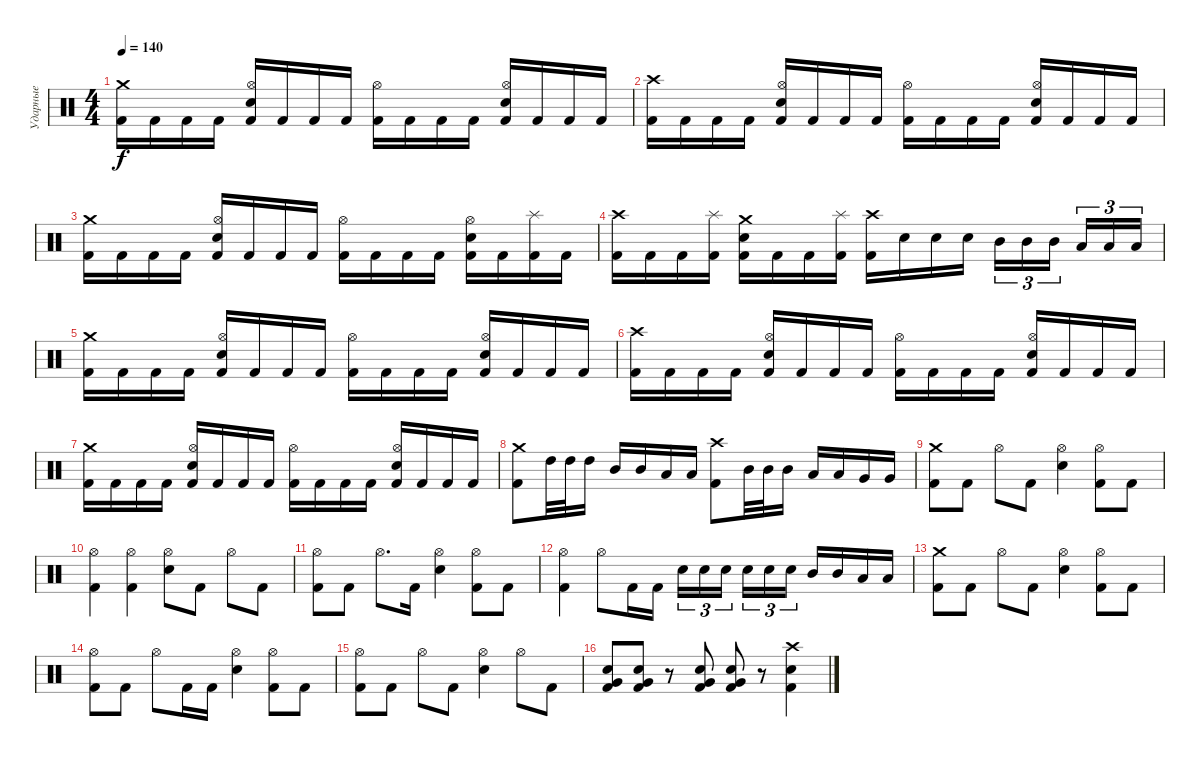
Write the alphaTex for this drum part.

\track ("Ударные" "Ударные") {instrument percussion}
\staff {score}
\articulation defaults
\ts (4 4)
\tempo 140
\clef neutral
\ks c
("Crash medium (hit)" "Kick (hit) 2").16{dy f} "Kick (hit) 2".16 "Kick (hit) 2".16 "Kick (hit) 2".16 ("Hi-Hat (open)" "Electric Snare (hit)" "Kick (hit) 2").16 "Kick (hit) 2".16 "Kick (hit) 2".16 "Kick (hit) 2".16 ("Hi-Hat (open)" "Kick (hit) 2").16 "Kick (hit) 2".16 "Kick (hit) 2".16 "Kick (hit) 2".16 ("Hi-Hat (open)" "Electric Snare (hit)" "Kick (hit) 2").16 "Kick (hit) 2".16 "Kick (hit) 2".16 "Kick (hit) 2".16 |
("Crash high (hit)" "Kick (hit) 2").16 "Kick (hit) 2".16 "Kick (hit) 2".16 "Kick (hit) 2".16 ("Hi-Hat (open)" "Electric Snare (hit)" "Kick (hit) 2").16 "Kick (hit) 2".16 "Kick (hit) 2".16 "Kick (hit) 2".16 ("Hi-Hat (open)" "Kick (hit) 2").16 "Kick (hit) 2".16 "Kick (hit) 2".16 "Kick (hit) 2".16 ("Hi-Hat (open)" "Electric Snare (hit)" "Kick (hit) 2").16 "Kick (hit) 2".16 "Kick (hit) 2".16 "Kick (hit) 2".16 |
("Crash medium (hit)" "Kick (hit) 2").16 "Kick (hit) 2".16 "Kick (hit) 2".16 "Kick (hit) 2".16 ("Hi-Hat (open)" "Electric Snare (hit)" "Kick (hit) 2").16 "Kick (hit) 2".16 "Kick (hit) 2".16 "Kick (hit) 2".16 ("Hi-Hat (open)" "Kick (hit) 2").16 "Kick (hit) 2".16 "Kick (hit) 2".16 "Kick (hit) 2".16 ("Hi-Hat (open)" "Electric Snare (hit)" "Kick (hit) 2").16 "Kick (hit) 2".16 ("Splash (hit)" "Kick (hit) 2").16 "Kick (hit) 2".16 |
("Crash high (hit)" "Kick (hit) 2").16 "Kick (hit) 2".16 "Kick (hit) 2".16 ("Splash (hit)" "Kick (hit) 2").16 ("Crash medium (hit)" "Electric Snare (hit)" "Kick (hit) 2").16 "Kick (hit) 2".16 "Kick (hit) 2".16 ("Splash (hit)" "Kick (hit) 2").16 ("Crash high (hit)" "Kick (hit) 2").16 "Electric Snare (hit)".16 "Electric Snare (hit)".16 "Electric Snare (hit)".16 "Mid Tom (hit)".16{tu (3 2)} "Mid Tom (hit)".16{tu (3 2)} "Mid Tom (hit)".16{tu (3 2) beam splitsecondary} "Low Tom (hit)".16{tu (3 2)} "Low Tom (hit)".16{tu (3 2)} "Low Tom (hit)".16{tu (3 2)} |
("Crash medium (hit)" "Kick (hit) 2").16 "Kick (hit) 2".16 "Kick (hit) 2".16 "Kick (hit) 2".16 ("Hi-Hat (open)" "Electric Snare (hit)" "Kick (hit) 2").16 "Kick (hit) 2".16 "Kick (hit) 2".16 "Kick (hit) 2".16 ("Hi-Hat (open)" "Kick (hit) 2").16 "Kick (hit) 2".16 "Kick (hit) 2".16 "Kick (hit) 2".16 ("Hi-Hat (open)" "Electric Snare (hit)" "Kick (hit) 2").16 "Kick (hit) 2".16 "Kick (hit) 2".16 "Kick (hit) 2".16 |
("Crash high (hit)" "Kick (hit) 2").16 "Kick (hit) 2".16 "Kick (hit) 2".16 "Kick (hit) 2".16 ("Hi-Hat (open)" "Electric Snare (hit)" "Kick (hit) 2").16 "Kick (hit) 2".16 "Kick (hit) 2".16 "Kick (hit) 2".16 ("Hi-Hat (open)" "Kick (hit) 2").16 "Kick (hit) 2".16 "Kick (hit) 2".16 "Kick (hit) 2".16 ("Hi-Hat (open)" "Electric Snare (hit)" "Kick (hit) 2").16 "Kick (hit) 2".16 "Kick (hit) 2".16 "Kick (hit) 2".16 |
("Crash medium (hit)" "Kick (hit) 2").16 "Kick (hit) 2".16 "Kick (hit) 2".16 "Kick (hit) 2".16 ("Hi-Hat (open)" "Electric Snare (hit)" "Kick (hit) 2").16 "Kick (hit) 2".16 "Kick (hit) 2".16 "Kick (hit) 2".16 ("Hi-Hat (open)" "Kick (hit) 2").16 "Kick (hit) 2".16 "Kick (hit) 2".16 "Kick (hit) 2".16 ("Hi-Hat (open)" "Electric Snare (hit)" "Kick (hit) 2").16 "Kick (hit) 2".16 "Kick (hit) 2".16 "Kick (hit) 2".16 |
("Crash medium (hit)" "Kick (hit) 2").8 "High Tom (hit)".32 "High Tom (hit)".32 "High Tom (hit)".16 "Mid Tom (hit)".16 "Mid Tom (hit)".16 "Low Tom (hit)".16 "Low Tom (hit)".16 ("Crash high (hit)" "Kick (hit) 2").8 "Mid Tom (hit)".32 "Mid Tom (hit)".32 "Mid Tom (hit)".16 "Low Tom (hit)".16 "Low Tom (hit)".16 "Very Low Tom (hit)".16 "Very Low Tom (hit)".16 |
("Crash medium (hit)" "Kick (hit) 2").8 "Kick (hit) 2".8 "Hi-Hat (open)".8 "Kick (hit) 2".8 ("Hi-Hat (open)" "Electric Snare (hit)").4 ("Hi-Hat (open)" "Kick (hit) 2").8 "Kick (hit) 2".8 |
("Hi-Hat (open)" "Kick (hit) 2").4 ("Hi-Hat (open)" "Kick (hit) 2").4 ("Hi-Hat (open)" "Electric Snare (hit)").8 "Kick (hit) 2".8 "Hi-Hat (open)".8 "Kick (hit) 2".8 |
("Hi-Hat (open)" "Kick (hit) 2").8 "Kick (hit) 2".8 "Hi-Hat (open)".8{d} "Kick (hit) 2".16 ("Hi-Hat (open)" "Electric Snare (hit)").4 ("Hi-Hat (open)" "Kick (hit) 2").8 "Kick (hit) 2".8 |
("Hi-Hat (open)" "Kick (hit) 2").4 "Hi-Hat (open)".8 "Kick (hit) 2".16 "Kick (hit) 2".16 "Electric Snare (hit)".16{tu (3 2)} "Electric Snare (hit)".16{tu (3 2)} "Electric Snare (hit)".16{tu (3 2) beam splitsecondary} "Electric Snare (hit)".16{tu (3 2)} "Electric Snare (hit)".16{tu (3 2)} "Electric Snare (hit)".16{tu (3 2)} "Mid Tom (hit)".16 "Mid Tom (hit)".16 "Low Tom (hit)".16 "Low Tom (hit)".16 |
("Crash medium (hit)" "Kick (hit) 2").8 "Kick (hit) 2".8 "Hi-Hat (open)".8 "Kick (hit) 2".8 ("Hi-Hat (open)" "Electric Snare (hit)").4 ("Hi-Hat (open)" "Kick (hit) 2").8 "Kick (hit) 2".8 |
("Hi-Hat (open)" "Kick (hit) 2").8 "Kick (hit) 2".8 "Hi-Hat (open)".8 "Kick (hit) 2".16 "Kick (hit) 2".16 ("Hi-Hat (open)" "Electric Snare (hit)").4 ("Hi-Hat (open)" "Kick (hit) 2").8 "Kick (hit) 2".8 |
("Hi-Hat (open)" "Kick (hit) 2").8 "Kick (hit) 2".8 "Hi-Hat (open)".8 "Kick (hit) 2".8 ("Hi-Hat (open)" "Electric Snare (hit)").4 "Hi-Hat (open)".8 "Kick (hit) 2".8 |
("Electric Snare (hit)" "Very Low Tom (hit)" "Kick (hit) 2").8 ("Electric Snare (hit)" "Very Low Tom (hit)" "Kick (hit) 2").8 r.8 ("Electric Snare (hit)" "Very Low Tom (hit)" "Kick (hit) 2").8 ("Electric Snare (hit)" "Very Low Tom (hit)" "Kick (hit) 2").8 r.8 ("Crash high (hit)" "Electric Snare (hit)" "Kick (hit) 2").4
